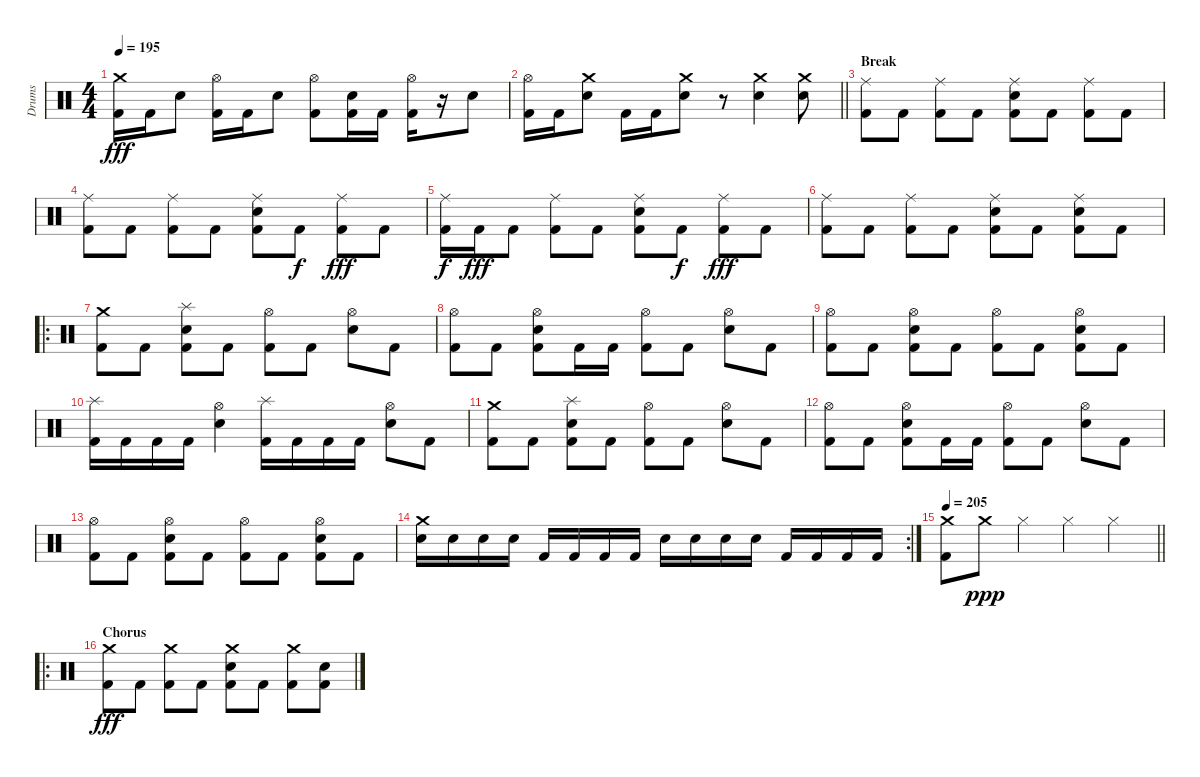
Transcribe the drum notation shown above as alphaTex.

\track ("Drums" "Drums") {instrument percussion}
\staff {score}
\articulation defaults
\ts (4 4)
\tempo 195
\clef neutral
\ks c
("Crash medium (hit)" "Kick (hit) 2").16{dy fff} "Kick (hit) 2".16 "Electric Snare (hit)".8 ("Hi-Hat (open)" "Kick (hit) 2").16 "Kick (hit) 2".16 "Electric Snare (hit)".8 ("Hi-Hat (open)" "Kick (hit) 2").8 ("Electric Snare (hit)" "Kick (hit) 2").16 "Kick (hit) 2".16 ("Hi-Hat (open)" "Kick (hit) 2").16 r.16 "Electric Snare (hit)".8 |
\barLineRight lightlight
("Hi-Hat (open)" "Kick (hit) 2").16 "Kick (hit) 2".16 ("Crash medium (hit)" "Electric Snare (hit)").8 "Kick (hit) 2".16 "Kick (hit) 2".16 ("Crash medium (hit)" "Electric Snare (hit)").8 r.8 ("Crash medium (hit)" "Electric Snare (hit)").4 ("Crash medium (hit)" "Electric Snare (hit)").8 |
\section ("" "Break")
("Ride (middle)" "Kick (hit) 2").8 "Kick (hit) 2".8 ("Ride (middle)" "Kick (hit) 2").8 "Kick (hit) 2".8 ("Ride (middle)" "Electric Snare (hit)" "Kick (hit) 2").8 "Kick (hit) 2".8 ("Ride (middle)" "Kick (hit) 2").8 "Kick (hit) 2".8 |
("Ride (middle)" "Kick (hit) 2").8 "Kick (hit) 2".8 ("Ride (middle)" "Kick (hit) 2").8 "Kick (hit) 2".8 ("Ride (middle)" "Electric Snare (hit)" "Kick (hit) 2").8 "Kick (hit) 2".8{dy f} ("Ride (middle)" "Kick (hit) 2").8{dy fff} "Kick (hit) 2".8 |
("Ride (middle)" "Kick (hit) 2").16{dy f} "Kick (hit) 2".16{dy fff} "Kick (hit) 2".8 ("Ride (middle)" "Kick (hit) 2").8 "Kick (hit) 2".8 ("Ride (middle)" "Electric Snare (hit)" "Kick (hit) 2").8 "Kick (hit) 2".8{dy f} ("Ride (middle)" "Kick (hit) 2").8{dy fff} "Kick (hit) 2".8 |
("Ride (middle)" "Kick (hit) 2").8 "Kick (hit) 2".8 ("Ride (middle)" "Kick (hit) 2").8 "Kick (hit) 2".8 ("Ride (middle)" "Electric Snare (hit)" "Kick (hit) 2").8 "Kick (hit) 2".8 ("Ride (middle)" "Electric Snare (hit)" "Kick (hit) 2").8 "Kick (hit) 2".8 |
\ro
("Crash medium (hit)" "Kick (hit) 2").8 "Kick (hit) 2".8 ("Splash (hit)" "Electric Snare (hit)" "Kick (hit) 2").8 "Kick (hit) 2".8 ("Hi-Hat (open)" "Kick (hit) 2").8 "Kick (hit) 2".8 ("Hi-Hat (open)" "Electric Snare (hit)").8 "Kick (hit) 2".8 |
("Hi-Hat (open)" "Kick (hit) 2").8 "Kick (hit) 2".8 ("Hi-Hat (open)" "Electric Snare (hit)" "Kick (hit) 2").8 "Kick (hit) 2".16 "Kick (hit) 2".16 ("Hi-Hat (open)" "Kick (hit) 2").8 "Kick (hit) 2".8 ("Hi-Hat (open)" "Electric Snare (hit)").8 "Kick (hit) 2".8 |
("Hi-Hat (open)" "Kick (hit) 2").8 "Kick (hit) 2".8 ("Hi-Hat (open)" "Electric Snare (hit)" "Kick (hit) 2").8 "Kick (hit) 2".8 ("Hi-Hat (open)" "Kick (hit) 2").8 "Kick (hit) 2".8 ("Hi-Hat (open)" "Electric Snare (hit)" "Kick (hit) 2").8 "Kick (hit) 2".8 |
("Splash (hit)" "Kick (hit) 2").16 "Kick (hit) 2".16 "Kick (hit) 2".16 "Kick (hit) 2".16 ("Hi-Hat (open)" "Electric Snare (hit)").4 ("Splash (hit)" "Kick (hit) 2").16 "Kick (hit) 2".16 "Kick (hit) 2".16 "Kick (hit) 2".16 ("Hi-Hat (open)" "Electric Snare (hit)").8 "Kick (hit) 2".8 |
("Crash medium (hit)" "Kick (hit) 2").8 "Kick (hit) 2".8 ("Splash (hit)" "Electric Snare (hit)" "Kick (hit) 2").8 "Kick (hit) 2".8 ("Hi-Hat (open)" "Kick (hit) 2").8 "Kick (hit) 2".8 ("Hi-Hat (open)" "Electric Snare (hit)").8 "Kick (hit) 2".8 |
("Hi-Hat (open)" "Kick (hit) 2").8 "Kick (hit) 2".8 ("Hi-Hat (open)" "Electric Snare (hit)" "Kick (hit) 2").8 "Kick (hit) 2".16 "Kick (hit) 2".16 ("Hi-Hat (open)" "Kick (hit) 2").8 "Kick (hit) 2".8 ("Hi-Hat (open)" "Electric Snare (hit)").8 "Kick (hit) 2".8 |
("Hi-Hat (open)" "Kick (hit) 2").8 "Kick (hit) 2".8 ("Hi-Hat (open)" "Electric Snare (hit)" "Kick (hit) 2").8 "Kick (hit) 2".8 ("Hi-Hat (open)" "Kick (hit) 2").8 "Kick (hit) 2".8 ("Hi-Hat (open)" "Electric Snare (hit)" "Kick (hit) 2").8 "Kick (hit) 2".8 |
\rc 2
("Crash medium (hit)" "Electric Snare (hit)").16 "Electric Snare (hit)".16 "Electric Snare (hit)".16 "Electric Snare (hit)".16 "Kick (hit) 2".16 "Kick (hit) 2".16 "Kick (hit) 2".16 "Kick (hit) 2".16 "Electric Snare (hit)".16 "Electric Snare (hit)".16 "Electric Snare (hit)".16 "Electric Snare (hit)".16 "Kick (hit) 2".16 "Kick (hit) 2".16 "Kick (hit) 2".16 "Kick (hit) 2".16 |
\tempo 205
\barLineRight lightlight
("Crash medium (hit)" "Kick (hit) 2").8 "Crash medium (hit)".8{dy ppp} "Hi-Hat (closed)".4 "Hi-Hat (closed)".4 "Hi-Hat (closed)".4 |
\ro
\section ("" "Chorus")
("Crash medium (hit)" "Kick (hit) 2").8{dy fff} "Kick (hit) 2".8 ("Crash medium (hit)" "Kick (hit) 2").8 "Kick (hit) 2".8 ("Crash medium (hit)" "Electric Snare (hit)" "Kick (hit) 2").8 "Kick (hit) 2".8 ("Crash medium (hit)" "Kick (hit) 2").8 ("Electric Snare (hit)" "Kick (hit) 2").8
